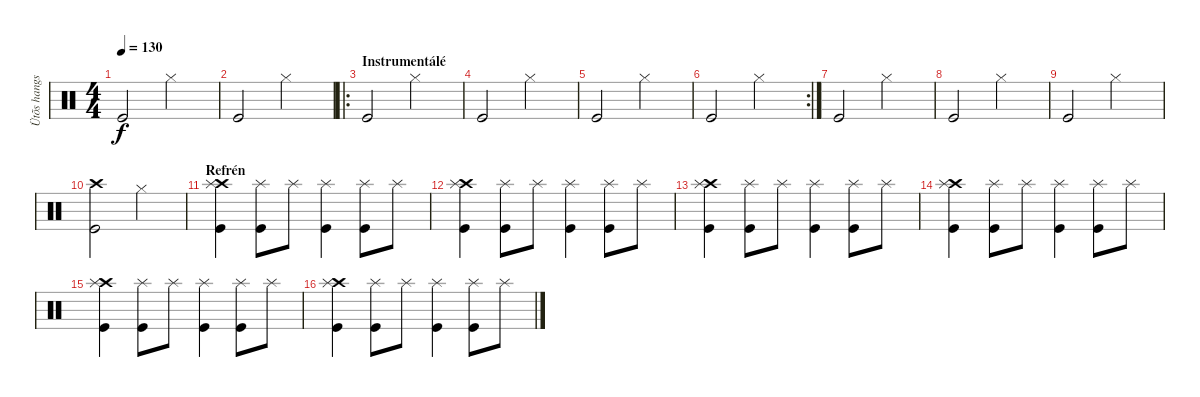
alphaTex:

\track ("Ütõs hangszer" "Ütõs hangs") {instrument percussion}
\staff {score}
\articulation defaults
\ts (4 4)
\tempo 130
\clef neutral
\ks c "Kick (hit)".2{dy f} "Hi-Hat (closed)".2
|
"Kick (hit)".2 "Hi-Hat (closed)".2 |
\ro
\section ("" "Instrumentálé")
"Kick (hit)".2 "Hi-Hat (closed)".2 |
"Kick (hit)".2 "Hi-Hat (closed)".2 |
"Kick (hit)".2 "Hi-Hat (closed)".2 |
\rc 2 "Kick (hit)".2 "Hi-Hat (closed)".2
|
"Kick (hit)".2 "Hi-Hat (closed)".2 |
"Kick (hit)".2 "Hi-Hat (closed)".2 |
"Kick (hit)".2 "Hi-Hat (closed)".2 |
("Crash high (hit)" "Kick (hit)").2 "Hi-Hat (closed)".2 |
\section ("" "Refrén")
("Crash high (hit)" "Splash (hit)" "Kick (hit)").4 ("Splash (hit)" "Kick (hit)").8 "Splash (hit)".8 ("Splash (hit)" "Kick (hit)").4 ("Splash (hit)" "Kick (hit)").8 "Splash (hit)".8 |
("Crash high (hit)" "Splash (hit)" "Kick (hit)").4 ("Splash (hit)" "Kick (hit)").8 "Splash (hit)".8 ("Splash (hit)" "Kick (hit)").4 ("Splash (hit)" "Kick (hit)").8 "Splash (hit)".8 |
("Crash high (hit)" "Splash (hit)" "Kick (hit)").4 ("Splash (hit)" "Kick (hit)").8 "Splash (hit)".8 ("Splash (hit)" "Kick (hit)").4 ("Splash (hit)" "Kick (hit)").8 "Splash (hit)".8 |
("Crash high (hit)" "Splash (hit)" "Kick (hit)").4 ("Splash (hit)" "Kick (hit)").8 "Splash (hit)".8 ("Splash (hit)" "Kick (hit)").4 ("Splash (hit)" "Kick (hit)").8 "Splash (hit)".8 |
("Crash high (hit)" "Splash (hit)" "Kick (hit)").4 ("Splash (hit)" "Kick (hit)").8 "Splash (hit)".8 ("Splash (hit)" "Kick (hit)").4 ("Splash (hit)" "Kick (hit)").8 "Splash (hit)".8 |
("Crash high (hit)" "Splash (hit)" "Kick (hit)").4 ("Splash (hit)" "Kick (hit)").8 "Splash (hit)".8 ("Splash (hit)" "Kick (hit)").4 ("Splash (hit)" "Kick (hit)").8 "Splash (hit)".8
